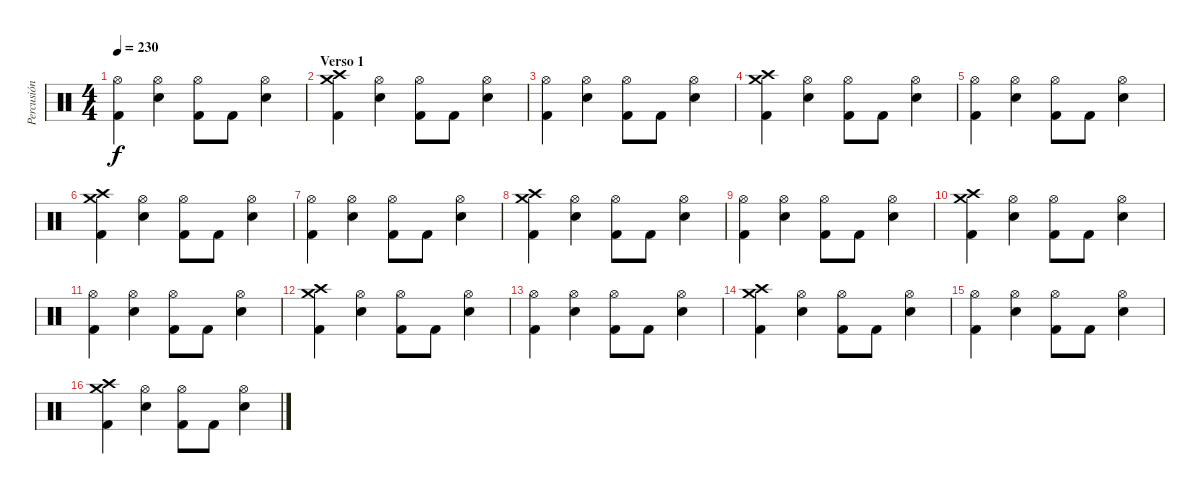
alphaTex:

\track ("Percusión" "Percusión") {instrument percussion}
\staff {score}
\articulation defaults
\ts (4 4)
\tempo 230
\clef neutral
\ks c
("Hi-Hat (open)" "Kick (hit) 2").4{dy f} ("Hi-Hat (open)" "Snare (hit) 2").4 ("Hi-Hat (open)" "Kick (hit) 2").8 "Kick (hit) 2".8 ("Hi-Hat (open)" "Snare (hit) 2").4 |
\section ("" "Verso 1")
("Crash medium (hit)" "Crash high (hit)" "Kick (hit) 2").4 ("Hi-Hat (open)" "Snare (hit) 2").4 ("Hi-Hat (open)" "Kick (hit) 2").8 "Kick (hit) 2".8 ("Hi-Hat (open)" "Snare (hit) 2").4 |
("Hi-Hat (open)" "Kick (hit) 2").4 ("Hi-Hat (open)" "Snare (hit) 2").4 ("Hi-Hat (open)" "Kick (hit) 2").8 "Kick (hit) 2".8 ("Hi-Hat (open)" "Snare (hit) 2").4 |
("Crash medium (hit)" "Crash high (hit)" "Kick (hit) 2").4 ("Hi-Hat (open)" "Snare (hit) 2").4 ("Hi-Hat (open)" "Kick (hit) 2").8 "Kick (hit) 2".8 ("Hi-Hat (open)" "Snare (hit) 2").4 |
("Hi-Hat (open)" "Kick (hit) 2").4 ("Hi-Hat (open)" "Snare (hit) 2").4 ("Hi-Hat (open)" "Kick (hit) 2").8 "Kick (hit) 2".8 ("Hi-Hat (open)" "Snare (hit) 2").4 |
("Crash medium (hit)" "Crash high (hit)" "Kick (hit) 2").4 ("Hi-Hat (open)" "Snare (hit) 2").4 ("Hi-Hat (open)" "Kick (hit) 2").8 "Kick (hit) 2".8 ("Hi-Hat (open)" "Snare (hit) 2").4 |
("Hi-Hat (open)" "Kick (hit) 2").4 ("Hi-Hat (open)" "Snare (hit) 2").4 ("Hi-Hat (open)" "Kick (hit) 2").8 "Kick (hit) 2".8 ("Hi-Hat (open)" "Snare (hit) 2").4 |
("Crash medium (hit)" "Crash high (hit)" "Kick (hit) 2").4 ("Hi-Hat (open)" "Snare (hit) 2").4 ("Hi-Hat (open)" "Kick (hit) 2").8 "Kick (hit) 2".8 ("Hi-Hat (open)" "Snare (hit) 2").4 |
("Hi-Hat (open)" "Kick (hit) 2").4 ("Hi-Hat (open)" "Snare (hit) 2").4 ("Hi-Hat (open)" "Kick (hit) 2").8 "Kick (hit) 2".8 ("Hi-Hat (open)" "Snare (hit) 2").4 |
("Crash medium (hit)" "Crash high (hit)" "Kick (hit) 2").4 ("Hi-Hat (open)" "Snare (hit) 2").4 ("Hi-Hat (open)" "Kick (hit) 2").8 "Kick (hit) 2".8 ("Hi-Hat (open)" "Snare (hit) 2").4 |
("Hi-Hat (open)" "Kick (hit) 2").4 ("Hi-Hat (open)" "Snare (hit) 2").4 ("Hi-Hat (open)" "Kick (hit) 2").8 "Kick (hit) 2".8 ("Hi-Hat (open)" "Snare (hit) 2").4 |
("Crash medium (hit)" "Crash high (hit)" "Kick (hit) 2").4 ("Hi-Hat (open)" "Snare (hit) 2").4 ("Hi-Hat (open)" "Kick (hit) 2").8 "Kick (hit) 2".8 ("Hi-Hat (open)" "Snare (hit) 2").4 |
("Hi-Hat (open)" "Kick (hit) 2").4 ("Hi-Hat (open)" "Snare (hit) 2").4 ("Hi-Hat (open)" "Kick (hit) 2").8 "Kick (hit) 2".8 ("Hi-Hat (open)" "Snare (hit) 2").4 |
("Crash medium (hit)" "Crash high (hit)" "Kick (hit) 2").4 ("Hi-Hat (open)" "Snare (hit) 2").4 ("Hi-Hat (open)" "Kick (hit) 2").8 "Kick (hit) 2".8 ("Hi-Hat (open)" "Snare (hit) 2").4 |
("Hi-Hat (open)" "Kick (hit) 2").4 ("Hi-Hat (open)" "Snare (hit) 2").4 ("Hi-Hat (open)" "Kick (hit) 2").8 "Kick (hit) 2".8 ("Hi-Hat (open)" "Snare (hit) 2").4 |
("Crash medium (hit)" "Crash high (hit)" "Kick (hit) 2").4 ("Hi-Hat (open)" "Snare (hit) 2").4 ("Hi-Hat (open)" "Kick (hit) 2").8 "Kick (hit) 2".8 ("Hi-Hat (open)" "Snare (hit) 2").4
